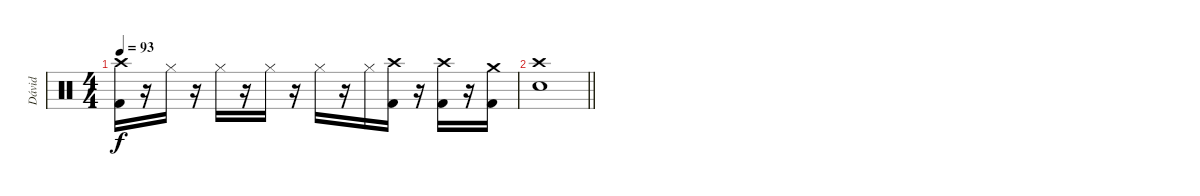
\track ("Dávid" "Dávid") {instrument percussion}
\staff {score}
\articulation defaults
\ts (4 4)
\tempo 93
\clef neutral
\ks c
("Crash high (hit)" "Kick (hit) 2").16{dy f} r.16 "Hi-Hat (closed)".16 r.16 "Hi-Hat (closed)".16 r.16 "Hi-Hat (closed)".16 r.16 "Hi-Hat (closed)".16 r.16 "Hi-Hat (closed)".16 ("Crash high (hit)" "Kick (hit) 2").16 r.16 ("Crash high (hit)" "Kick (hit) 2").16 r.16 ("Crash medium (hit)" "Kick (hit) 2").16 |
\barLineRight lightlight
("Crash high (hit)" "Electric Snare (hit)").1
